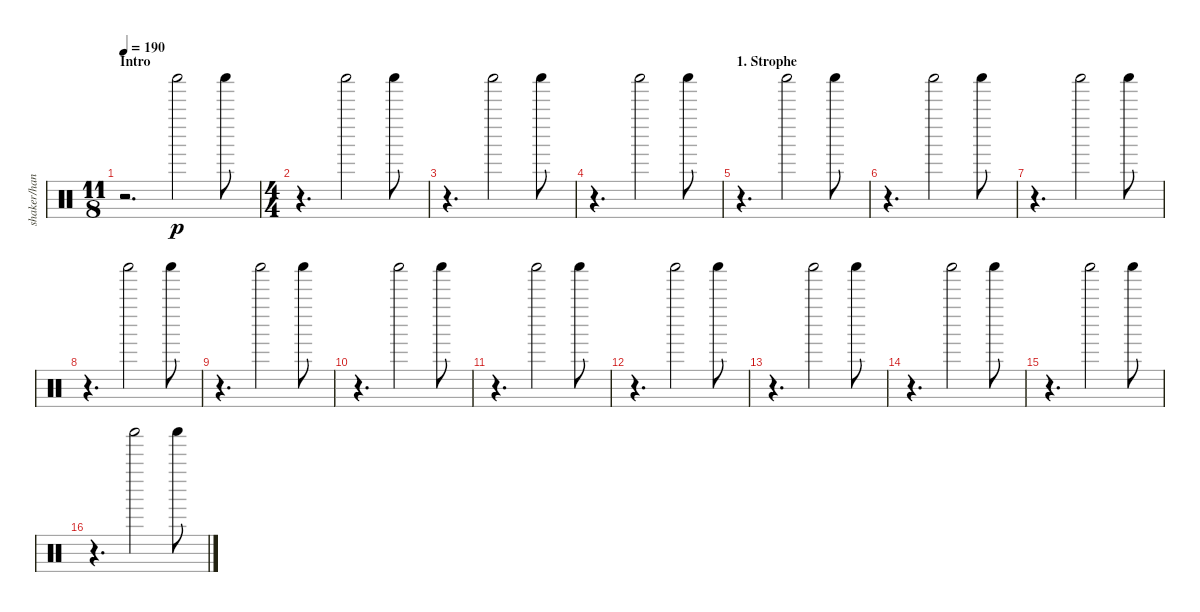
\track ("shaker/hand clap" "shaker/han") {instrument percussion}
\staff {score}
\articulation defaults
\ts (11 8)
\section ("" "Intro")
\tempo 190
\clef neutral
\ks c
r.2{d dy p} "Shaker (hit)".2 "Shaker (hit)".8 |
\ts (4 4)
r.4{d} "Shaker (hit)".2 "Shaker (hit)".8 |
r.4{d} "Shaker (hit)".2 "Shaker (hit)".8 |
r.4{d} "Shaker (hit)".2 "Shaker (hit)".8 |
\section ("" "1. Strophe")
r.4{d} "Shaker (hit)".2 "Shaker (hit)".8 |
r.4{d} "Shaker (hit)".2 "Shaker (hit)".8 |
r.4{d} "Shaker (hit)".2 "Shaker (hit)".8 |
r.4{d} "Shaker (hit)".2 "Shaker (hit)".8 |
r.4{d} "Shaker (hit)".2 "Shaker (hit)".8 |
r.4{d} "Shaker (hit)".2 "Shaker (hit)".8 |
r.4{d} "Shaker (hit)".2 "Shaker (hit)".8 |
r.4{d} "Shaker (hit)".2 "Shaker (hit)".8 |
r.4{d} "Shaker (hit)".2 "Shaker (hit)".8 |
r.4{d} "Shaker (hit)".2 "Shaker (hit)".8 |
r.4{d} "Shaker (hit)".2 "Shaker (hit)".8 |
r.4{d} "Shaker (hit)".2 "Shaker (hit)".8
